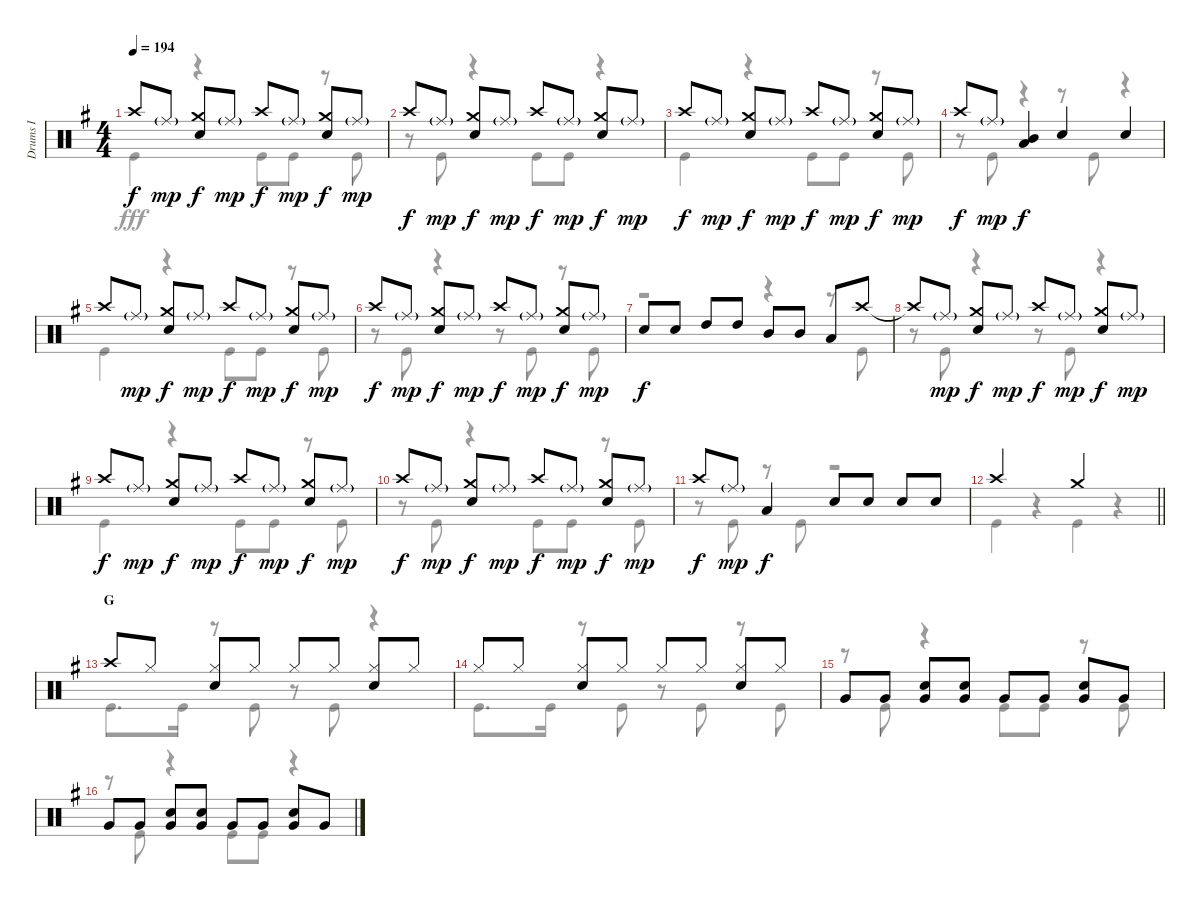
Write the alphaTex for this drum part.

\track ("Drums I" "Drums I") {instrument percussion}
\staff {score}
\articulation defaults
\voice
\ts (4 4)
\tempo 194
\clef neutral
\ks g "Crash high (hit)".8{dy f} "Ride (middle)"{g}.8{dy mp}
("Crash medium (hit)" "Snare (hit) 2").8{dy f} "Ride (middle)"{g}.8{dy mp} "Crash high (hit)".8{dy f} "Ride (middle)"{g}.8{dy mp} ("Crash medium (hit)" "Snare (hit) 2").8{dy f} "Ride (middle)"{g}.8{dy mp} |
"Crash high (hit)".8{dy f} "Ride (middle)"{g}.8{dy mp} ("Crash medium (hit)" "Snare (hit) 2").8{dy f} "Ride (middle)"{g}.8{dy mp} "Crash high (hit)".8{dy f} "Ride (middle)"{g}.8{dy mp} ("Crash medium (hit)" "Snare (hit) 2").8{dy f} "Ride (middle)"{g}.8{dy mp} |
"Crash high (hit)".8{dy f} "Ride (middle)"{g}.8{dy mp} ("Crash medium (hit)" "Snare (hit) 2").8{dy f} "Ride (middle)"{g}.8{dy mp} "Crash high (hit)".8{dy f} "Ride (middle)"{g}.8{dy mp} ("Crash medium (hit)" "Snare (hit) 2").8{dy f} "Ride (middle)"{g}.8{dy mp} |
"Crash high (hit)".8{dy f} "Ride (middle)"{g}.8{dy mp} ("Mid Tom (hit)" "Low Tom (hit)").4{dy f} "Snare (hit) 2".4 "Snare (hit) 2".4 |
"Crash high (hit)".8 "Ride (middle)"{g}.8{dy mp} ("Crash medium (hit)" "Snare (hit) 2").8{dy f} "Ride (middle)"{g}.8{dy mp} "Crash high (hit)".8{dy f} "Ride (middle)"{g}.8{dy mp} ("Crash medium (hit)" "Snare (hit) 2").8{dy f} "Ride (middle)"{g}.8{dy mp} |
"Crash high (hit)".8{dy f} "Ride (middle)"{g}.8{dy mp} ("Crash medium (hit)" "Snare (hit) 2").8{dy f} "Ride (middle)"{g}.8{dy mp} "Crash high (hit)".8{dy f} "Ride (middle)"{g}.8{dy mp} ("Crash medium (hit)" "Snare (hit) 2").8{dy f} "Ride (middle)"{g}.8{dy mp} |
"Snare (hit) 2".8{dy f} "Snare (hit) 2".8 "High Tom (hit)".8 "High Tom (hit)".8 "Mid Tom (hit)".8 "Mid Tom (hit)".8 "Low Tom (hit)".8 "Crash high (hit)".8 |
"Crash high (hit)"{t}.8 "Ride (middle)"{g}.8{dy mp} ("Crash medium (hit)" "Snare (hit) 2").8{dy f} "Ride (middle)"{g}.8{dy mp} "Crash high (hit)".8{dy f} "Ride (middle)"{g}.8{dy mp} ("Crash medium (hit)" "Snare (hit) 2").8{dy f} "Ride (middle)"{g}.8{dy mp} |
"Crash high (hit)".8{dy f} "Ride (middle)"{g}.8{dy mp} ("Crash medium (hit)" "Snare (hit) 2").8{dy f} "Ride (middle)"{g}.8{dy mp} "Crash high (hit)".8{dy f} "Ride (middle)"{g}.8{dy mp} ("Crash medium (hit)" "Snare (hit) 2").8{dy f} "Ride (middle)"{g}.8{dy mp} |
"Crash high (hit)".8{dy f} "Ride (middle)"{g}.8{dy mp} ("Crash medium (hit)" "Snare (hit) 2").8{dy f} "Ride (middle)"{g}.8{dy mp} "Crash high (hit)".8{dy f} "Ride (middle)"{g}.8{dy mp} ("Crash medium (hit)" "Snare (hit) 2").8{dy f} "Ride (middle)"{g}.8{dy mp} |
"Crash high (hit)".8{dy f} "Ride (middle)"{g}.8{dy mp} "Low Tom (hit)".4{dy f} "Snare (hit) 2".8 "Snare (hit) 2".8 "Snare (hit) 2".8 "Snare (hit) 2".8 |
\barLineRight lightlight "Crash high (hit)".2 "Crash medium (hit)".2
|
\section ("" "G")
"Crash high (hit)".8 "Hi-Hat (closed)".8 ("Hi-Hat (closed)" "Snare (hit) 2").8 "Hi-Hat (closed)".8 "Hi-Hat (closed)".8 "Hi-Hat (closed)".8 ("Hi-Hat (closed)" "Snare (hit) 2").8 "Hi-Hat (closed)".8 |
"Hi-Hat (closed)".8 "Hi-Hat (closed)".8 ("Hi-Hat (closed)" "Snare (hit) 2").8 "Hi-Hat (closed)".8 "Hi-Hat (closed)".8 "Hi-Hat (closed)".8 ("Hi-Hat (closed)" "Snare (hit) 2").8 "Hi-Hat (closed)".8 |
"Very Low Tom (hit)".8 "Very Low Tom (hit)".8 ("Snare (hit) 2" "Very Low Tom (hit)").8 ("Snare (hit) 2" "Very Low Tom (hit)").8 "Very Low Tom (hit)".8 "Very Low Tom (hit)".8 ("Snare (hit) 2" "Very Low Tom (hit)").8 "Very Low Tom (hit)".8 |
"Very Low Tom (hit)".8 "Very Low Tom (hit)".8 ("Snare (hit) 2" "Very Low Tom (hit)").8 ("Snare (hit) 2" "Very Low Tom (hit)").8 "Very Low Tom (hit)".8 "Very Low Tom (hit)".8 ("Snare (hit) 2" "Very Low Tom (hit)").8 "Very Low Tom (hit)".8
\voice
\clef neutral
\ottava regular
\simile none
\ks g "Kick (hit)".4{dy fff}
r.4 "Kick (hit)".8 "Kick (hit)".8 r.8 "Kick (hit)".8 |
r.8 "Kick (hit)".8 r.4 "Kick (hit)".8 "Kick (hit)".8 r.4 |
"Kick (hit)".4 r.4 "Kick (hit)".8 "Kick (hit)".8 r.8 "Kick (hit)".8 |
r.8 "Kick (hit)".8 r.4 r.8 "Kick (hit)".8 r.4 |
"Kick (hit)".4 r.4 "Kick (hit)".8 "Kick (hit)".8 r.8 "Kick (hit)".8 |
r.8 "Kick (hit)".8 r.4 r.8 "Kick (hit)".8 r.8 "Kick (hit)".8 |
r.2 r.4 r.8 "Kick (hit)".8 |
r.8 "Kick (hit)".8 r.4 r.8 "Kick (hit)".8 r.4 |
"Kick (hit)".4 r.4 "Kick (hit)".8 "Kick (hit)".8 r.8 "Kick (hit)".8 |
r.8 "Kick (hit)".8 r.4 "Kick (hit)".8 "Kick (hit)".8 r.8 "Kick (hit)".8 |
r.8 "Kick (hit)".8 r.8 "Kick (hit)".8 r.2 |
\barLineRight lightlight "Kick (hit)".4
r.4 "Kick (hit)".4 r.4 |
"Kick (hit)".8{d} "Kick (hit)".16 r.8 "Kick (hit)".8 r.8 "Kick (hit)".8 r.4 |
"Kick (hit)".8{d} "Kick (hit)".16 r.8 "Kick (hit)".8 r.8 "Kick (hit)".8 r.8 "Kick (hit)".8 |
r.8 "Kick (hit)".8 r.4 "Kick (hit)".8 "Kick (hit)".8 r.8 "Kick (hit)".8 |
r.8 "Kick (hit)".8 r.4 "Kick (hit)".8 "Kick (hit)".8 r.4
